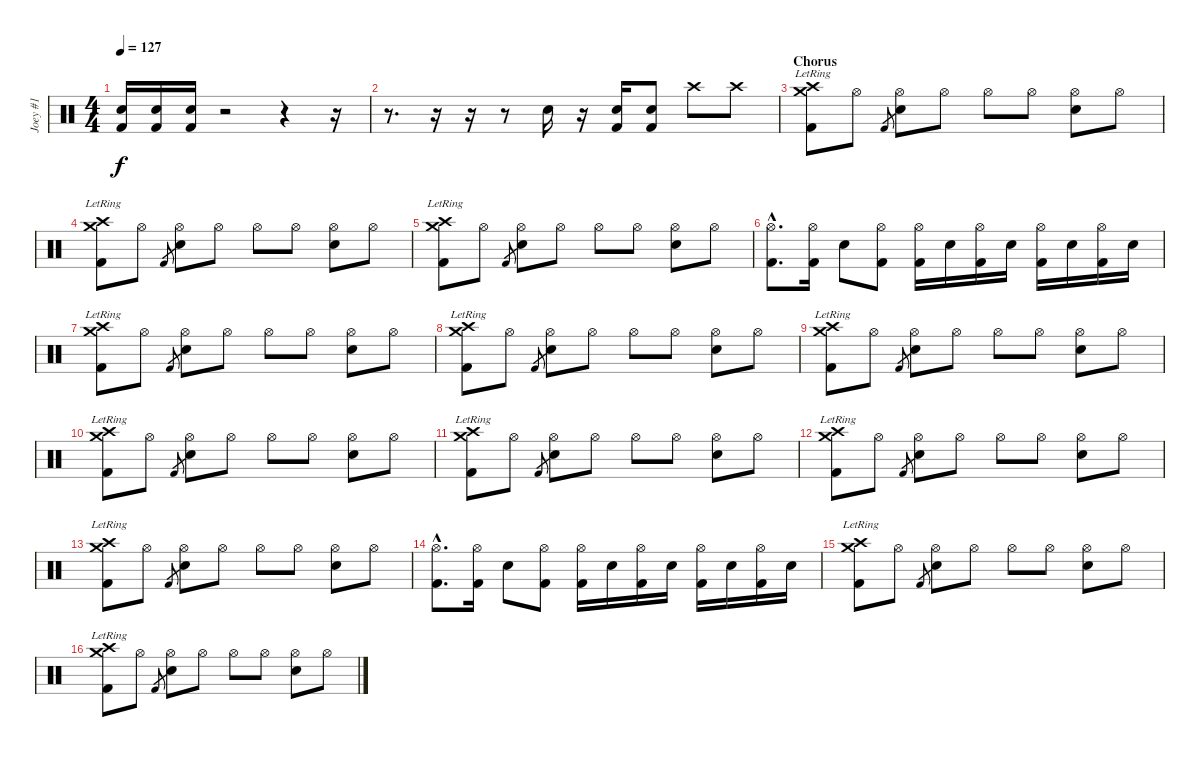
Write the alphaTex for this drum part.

\track ("Joey #1" "Joey #1") {instrument percussion}
\staff {score}
\articulation defaults
\ts (4 4)
\tempo 127
\clef neutral
\ks c
("Electric Snare (hit)" "Kick (hit) 2").16{dy f} ("Electric Snare (hit)" "Kick (hit) 2").16 ("Electric Snare (hit)" "Kick (hit) 2").16 r.2 r.4 r.16 |
r.8{d} r.16 r.16 r.8 "Electric Snare (hit)".16 r.16 ("Kick (hit) 2" "Electric Snare (hit)").16 ("Kick (hit) 2" "Electric Snare (hit)").8 "Crash high (hit)".8 "Crash high (hit)".8 |
\section ("" "Chorus")
("Crash medium (hit)"{lr} "Crash high (hit)"{lr} "Kick (hit) 2").8 "Hi-Hat (open)".8 "Kick (hit) 2"{sl}.8{gr} ("Hi-Hat (open)" "Electric Snare (hit)").8 "Hi-Hat (open)".8 "Hi-Hat (open)".8 "Hi-Hat (open)".8 ("Hi-Hat (open)" "Electric Snare (hit)").8 "Hi-Hat (open)".8 |
("Crash medium (hit)"{lr} "Crash high (hit)"{lr} "Kick (hit) 2").8 "Hi-Hat (open)".8 "Kick (hit) 2"{sl}.8{gr} ("Hi-Hat (open)" "Electric Snare (hit)").8 "Hi-Hat (open)".8 "Hi-Hat (open)".8 "Hi-Hat (open)".8 ("Hi-Hat (open)" "Electric Snare (hit)").8 "Hi-Hat (open)".8 |
("Crash medium (hit)"{lr} "Crash high (hit)"{lr} "Kick (hit) 2").8 "Hi-Hat (open)".8 "Kick (hit) 2"{sl}.8{gr} ("Hi-Hat (open)" "Electric Snare (hit)").8 "Hi-Hat (open)".8 "Hi-Hat (open)".8 "Hi-Hat (open)".8 ("Hi-Hat (open)" "Electric Snare (hit)").8 "Hi-Hat (open)".8 |
("Hi-Hat (open)"{hac} "Kick (hit) 2"{hac}).8{d} ("Hi-Hat (open)" "Kick (hit) 2").16 "Electric Snare (hit)".8 ("Hi-Hat (open)" "Kick (hit) 2").8 ("Kick (hit) 2" "Hi-Hat (open)").16 "Electric Snare (hit)".16 ("Kick (hit) 2" "Hi-Hat (open)").16 "Electric Snare (hit)".16 ("Kick (hit) 2" "Hi-Hat (open)").16 "Electric Snare (hit)".16 ("Kick (hit) 2" "Hi-Hat (open)").16 "Electric Snare (hit)".16 |
("Crash medium (hit)"{lr} "Crash high (hit)"{lr} "Kick (hit) 2").8 "Hi-Hat (open)".8 "Kick (hit) 2"{sl}.8{gr} ("Hi-Hat (open)" "Electric Snare (hit)").8 "Hi-Hat (open)".8 "Hi-Hat (open)".8 "Hi-Hat (open)".8 ("Hi-Hat (open)" "Electric Snare (hit)").8 "Hi-Hat (open)".8 |
("Crash medium (hit)"{lr} "Crash high (hit)"{lr} "Kick (hit) 2").8 "Hi-Hat (open)".8 "Kick (hit) 2"{sl}.8{gr} ("Hi-Hat (open)" "Electric Snare (hit)").8 "Hi-Hat (open)".8 "Hi-Hat (open)".8 "Hi-Hat (open)".8 ("Hi-Hat (open)" "Electric Snare (hit)").8 "Hi-Hat (open)".8 |
("Crash medium (hit)"{lr} "Crash high (hit)"{lr} "Kick (hit) 2").8 "Hi-Hat (open)".8 "Kick (hit) 2"{sl}.8{gr} ("Hi-Hat (open)" "Electric Snare (hit)").8 "Hi-Hat (open)".8 "Hi-Hat (open)".8 "Hi-Hat (open)".8 ("Hi-Hat (open)" "Electric Snare (hit)").8 "Hi-Hat (open)".8 |
("Crash medium (hit)"{lr} "Crash high (hit)"{lr} "Kick (hit) 2").8 "Hi-Hat (open)".8 "Kick (hit) 2"{sl}.8{gr} ("Hi-Hat (open)" "Electric Snare (hit)").8 "Hi-Hat (open)".8 "Hi-Hat (open)".8 "Hi-Hat (open)".8 ("Hi-Hat (open)" "Electric Snare (hit)").8 "Hi-Hat (open)".8 |
("Crash medium (hit)"{lr} "Crash high (hit)"{lr} "Kick (hit) 2").8 "Hi-Hat (open)".8 "Kick (hit) 2"{sl}.8{gr} ("Hi-Hat (open)" "Electric Snare (hit)").8 "Hi-Hat (open)".8 "Hi-Hat (open)".8 "Hi-Hat (open)".8 ("Hi-Hat (open)" "Electric Snare (hit)").8 "Hi-Hat (open)".8 |
("Crash medium (hit)"{lr} "Crash high (hit)"{lr} "Kick (hit) 2").8 "Hi-Hat (open)".8 "Kick (hit) 2"{sl}.8{gr} ("Hi-Hat (open)" "Electric Snare (hit)").8 "Hi-Hat (open)".8 "Hi-Hat (open)".8 "Hi-Hat (open)".8 ("Hi-Hat (open)" "Electric Snare (hit)").8 "Hi-Hat (open)".8 |
("Crash medium (hit)"{lr} "Crash high (hit)"{lr} "Kick (hit) 2").8 "Hi-Hat (open)".8 "Kick (hit) 2"{sl}.8{gr} ("Hi-Hat (open)" "Electric Snare (hit)").8 "Hi-Hat (open)".8 "Hi-Hat (open)".8 "Hi-Hat (open)".8 ("Hi-Hat (open)" "Electric Snare (hit)").8 "Hi-Hat (open)".8 |
("Hi-Hat (open)"{hac} "Kick (hit) 2"{hac}).8{d} ("Hi-Hat (open)" "Kick (hit) 2").16 "Electric Snare (hit)".8 ("Hi-Hat (open)" "Kick (hit) 2").8 ("Kick (hit) 2" "Hi-Hat (open)").16 "Electric Snare (hit)".16 ("Kick (hit) 2" "Hi-Hat (open)").16 "Electric Snare (hit)".16 ("Kick (hit) 2" "Hi-Hat (open)").16 "Electric Snare (hit)".16 ("Kick (hit) 2" "Hi-Hat (open)").16 "Electric Snare (hit)".16 |
("Crash medium (hit)"{lr} "Crash high (hit)"{lr} "Kick (hit) 2").8 "Hi-Hat (open)".8 "Kick (hit) 2"{sl}.8{gr} ("Hi-Hat (open)" "Electric Snare (hit)").8 "Hi-Hat (open)".8 "Hi-Hat (open)".8 "Hi-Hat (open)".8 ("Hi-Hat (open)" "Electric Snare (hit)").8 "Hi-Hat (open)".8 |
("Crash medium (hit)"{lr} "Crash high (hit)"{lr} "Kick (hit) 2").8 "Hi-Hat (open)".8 "Kick (hit) 2"{sl}.8{gr} ("Hi-Hat (open)" "Electric Snare (hit)").8 "Hi-Hat (open)".8 "Hi-Hat (open)".8 "Hi-Hat (open)".8 ("Hi-Hat (open)" "Electric Snare (hit)").8 "Hi-Hat (open)".8
